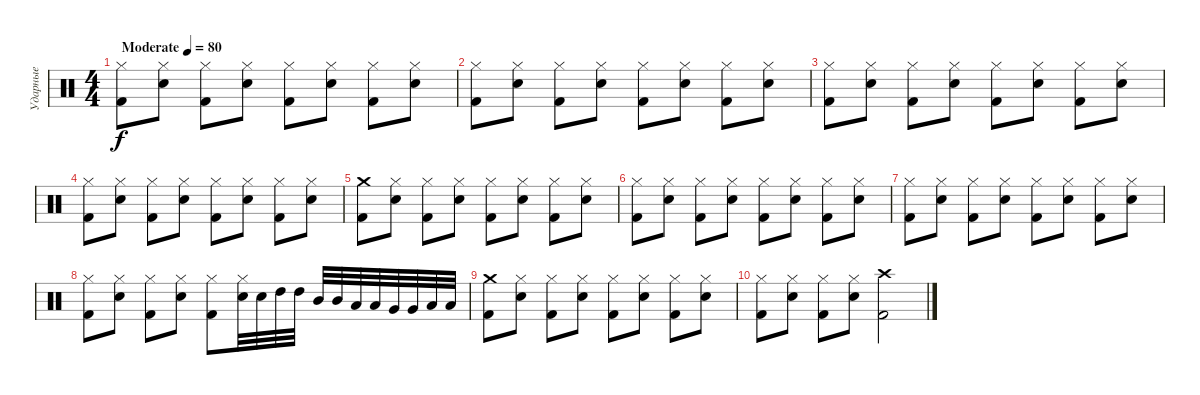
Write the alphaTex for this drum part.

\track ("Ударные" "Ударные") {instrument percussion}
\staff {score}
\articulation defaults
\ts (4 4)
\tempo (80 "Moderate")
\clef neutral
\ks c
("Hi-Hat (closed)" "Kick (hit) 2").8{dy f} ("Hi-Hat (closed)" "Snare (hit) 2").8 ("Hi-Hat (closed)" "Kick (hit) 2").8 ("Hi-Hat (closed)" "Snare (hit) 2").8 ("Hi-Hat (closed)" "Kick (hit) 2").8 ("Hi-Hat (closed)" "Snare (hit) 2").8 ("Hi-Hat (closed)" "Kick (hit) 2").8 ("Hi-Hat (closed)" "Snare (hit) 2").8 |
("Hi-Hat (closed)" "Kick (hit) 2").8 ("Hi-Hat (closed)" "Snare (hit) 2").8 ("Hi-Hat (closed)" "Kick (hit) 2").8 ("Hi-Hat (closed)" "Snare (hit) 2").8 ("Hi-Hat (closed)" "Kick (hit) 2").8 ("Hi-Hat (closed)" "Snare (hit) 2").8 ("Hi-Hat (closed)" "Kick (hit) 2").8 ("Hi-Hat (closed)" "Snare (hit) 2").8 |
("Hi-Hat (closed)" "Kick (hit) 2").8 ("Hi-Hat (closed)" "Snare (hit) 2").8 ("Hi-Hat (closed)" "Kick (hit) 2").8 ("Hi-Hat (closed)" "Snare (hit) 2").8 ("Hi-Hat (closed)" "Kick (hit) 2").8 ("Hi-Hat (closed)" "Snare (hit) 2").8 ("Hi-Hat (closed)" "Kick (hit) 2").8 ("Hi-Hat (closed)" "Snare (hit) 2").8 |
("Hi-Hat (closed)" "Kick (hit) 2").8 ("Hi-Hat (closed)" "Snare (hit) 2").8 ("Hi-Hat (closed)" "Kick (hit) 2").8 ("Hi-Hat (closed)" "Snare (hit) 2").8 ("Hi-Hat (closed)" "Kick (hit) 2").8 ("Hi-Hat (closed)" "Snare (hit) 2").8 ("Hi-Hat (closed)" "Kick (hit) 2").8 ("Hi-Hat (closed)" "Snare (hit) 2").8 |
("Crash medium (hit)" "Kick (hit) 2").8 ("Hi-Hat (closed)" "Snare (hit) 2").8 ("Hi-Hat (closed)" "Kick (hit) 2").8 ("Hi-Hat (closed)" "Snare (hit) 2").8 ("Hi-Hat (closed)" "Kick (hit) 2").8 ("Hi-Hat (closed)" "Snare (hit) 2").8 ("Hi-Hat (closed)" "Kick (hit) 2").8 ("Hi-Hat (closed)" "Snare (hit) 2").8 |
("Hi-Hat (closed)" "Kick (hit) 2").8 ("Hi-Hat (closed)" "Snare (hit) 2").8 ("Hi-Hat (closed)" "Kick (hit) 2").8 ("Hi-Hat (closed)" "Snare (hit) 2").8 ("Hi-Hat (closed)" "Kick (hit) 2").8 ("Hi-Hat (closed)" "Snare (hit) 2").8 ("Hi-Hat (closed)" "Kick (hit) 2").8 ("Hi-Hat (closed)" "Snare (hit) 2").8 |
("Hi-Hat (closed)" "Kick (hit) 2").8 ("Hi-Hat (closed)" "Snare (hit) 2").8 ("Hi-Hat (closed)" "Kick (hit) 2").8 ("Hi-Hat (closed)" "Snare (hit) 2").8 ("Hi-Hat (closed)" "Kick (hit) 2").8 ("Hi-Hat (closed)" "Snare (hit) 2").8 ("Hi-Hat (closed)" "Kick (hit) 2").8 ("Hi-Hat (closed)" "Snare (hit) 2").8 |
("Hi-Hat (closed)" "Kick (hit) 2").8 ("Hi-Hat (closed)" "Snare (hit) 2").8 ("Hi-Hat (closed)" "Kick (hit) 2").8 ("Hi-Hat (closed)" "Snare (hit) 2").8 ("Hi-Hat (closed)" "Kick (hit) 2").8 ("Hi-Hat (closed)" "Snare (hit) 2").32 "Snare (hit) 2".32 "High Tom (hit)".32 "High Tom (hit)".32 "Mid Tom (hit)".32 "Mid Tom (hit)".32 "Low Tom (hit)".32 "Low Tom (hit)".32 "Very Low Tom (hit)".32 "Very Low Tom (hit)".32 "Low Floor Tom (hit)".32 "Low Floor Tom (hit)".32 |
("Crash medium (hit)" "Kick (hit) 2").8 ("Hi-Hat (closed)" "Snare (hit) 2").8 ("Hi-Hat (closed)" "Kick (hit) 2").8 ("Hi-Hat (closed)" "Snare (hit) 2").8 ("Hi-Hat (closed)" "Kick (hit) 2").8 ("Hi-Hat (closed)" "Snare (hit) 2").8 ("Hi-Hat (closed)" "Kick (hit) 2").8 ("Hi-Hat (closed)" "Snare (hit) 2").8 |
("Hi-Hat (closed)" "Kick (hit) 2").8 ("Hi-Hat (closed)" "Snare (hit) 2").8 ("Hi-Hat (closed)" "Kick (hit) 2").8 ("Hi-Hat (closed)" "Snare (hit) 2").8 ("Crash high (hit)" "Kick (hit) 2").2
